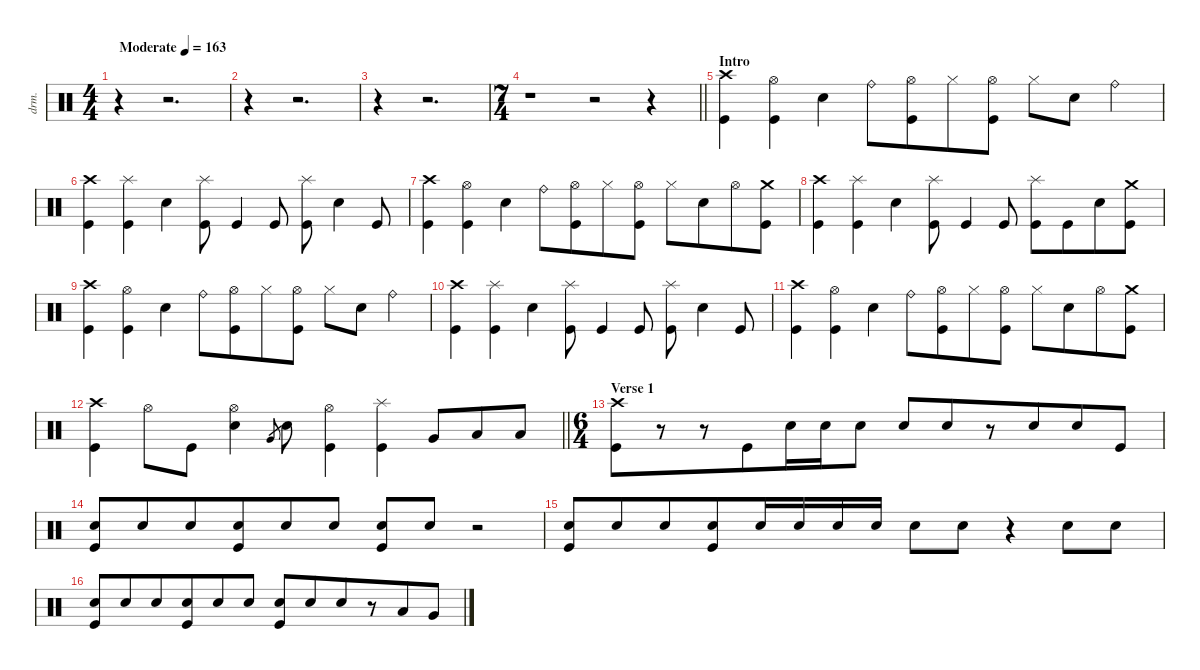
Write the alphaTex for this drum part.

\defaultSystemsLayout 4
\hideDynamics
\bracketExtendMode nobrackets
\otherSystemsTrackNameOrientation horizontal
\track ("Drums" "drm.") {instrument percussion}
\staff {score}
\articulation defaults
\ts (4 4)
\beaming (8 2 2 2 2)
\tempo (163 "Moderate")
\clef neutral
\ks c
r.4{dy f} r.2{d} |
r.4 r.2{d} |
r.4 r.2{d} |
\ts (7 4)
\beaming (8 6 4 4)
\barLineRight lightlight
r.1 r.2 r.4 |
\section ("" "Intro")
("Crash high (hit)" "Kick (hit)").4 ("Hi-Hat (open)" "Kick (hit)").4 "Snare (hit) 2".4 "Ride (bell)".8 ("Hi-Hat (open)" "Kick (hit)").8 "Hi-Hat (closed)".8 ("Hi-Hat (open)" "Kick (hit)").8 "Hi-Hat (closed)".8 "Snare (hit) 2".8 "Ride (bell)".4 |
("Crash high (hit)" "Kick (hit)").4 ("Splash (hit)" "Kick (hit)").4 "Snare (hit) 2".4 ("Splash (hit)" "Kick (hit)").8 "Kick (hit)".4 "Kick (hit)".8 ("Splash (hit)" "Kick (hit)").8 "Snare (hit) 2".4 "Kick (hit)".8 |
("Crash high (hit)" "Kick (hit)").4 ("Hi-Hat (open)" "Kick (hit)").4 "Snare (hit) 2".4 "Ride (bell)".8 ("Hi-Hat (open)" "Kick (hit)").8 "Hi-Hat (closed)".8 ("Hi-Hat (open)" "Kick (hit)").8 "Hi-Hat (closed)".8 "Snare (hit) 2".8 "Hi-Hat (open)".8 ("Crash medium (hit)" "Kick (hit)").8 |
("Crash high (hit)" "Kick (hit)").4 ("Splash (hit)" "Kick (hit)").4 "Snare (hit) 2".4 ("Splash (hit)" "Kick (hit)").8 "Kick (hit)".4 "Kick (hit)".8 ("Splash (hit)" "Kick (hit)").8 "Kick (hit)".8 "Snare (hit) 2".8 ("Crash medium (hit)" "Kick (hit)").8 |
("Crash high (hit)" "Kick (hit)").4 ("Hi-Hat (open)" "Kick (hit)").4 "Snare (hit) 2".4 "Ride (bell)".8 ("Hi-Hat (open)" "Kick (hit)").8 "Hi-Hat (closed)".8 ("Hi-Hat (open)" "Kick (hit)").8 "Hi-Hat (closed)".8 "Snare (hit) 2".8 "Ride (bell)".4 |
("Crash high (hit)" "Kick (hit)").4 ("Splash (hit)" "Kick (hit)").4 "Snare (hit) 2".4 ("Splash (hit)" "Kick (hit)").8 "Kick (hit)".4 "Kick (hit)".8 ("Splash (hit)" "Kick (hit)").8 "Snare (hit) 2".4 "Kick (hit)".8 |
("Crash high (hit)" "Kick (hit)").4 ("Hi-Hat (open)" "Kick (hit)").4 "Snare (hit) 2".4 "Ride (bell)".8 ("Hi-Hat (open)" "Kick (hit)").8 "Hi-Hat (closed)".8 ("Hi-Hat (open)" "Kick (hit)").8 "Hi-Hat (closed)".8 "Snare (hit) 2".8 "Hi-Hat (open)".8 ("Crash medium (hit)" "Kick (hit)").8 |
\barLineRight lightlight
("Crash high (hit)" "Kick (hit)").4 "Hi-Hat (open)".8 "Kick (hit)".8 ("Hi-Hat (open)" "Snare (hit) 2").4 "Very Low Tom (hit)".8{gr dy mf} "Snare (hit) 2".8{dy f} ("Hi-Hat (open)" "Kick (hit)").4 ("Splash (hit)" "Kick (hit)").4 "Very Low Tom (hit)".8 "Low Floor Tom (hit)".8 "Low Floor Tom (hit)".8 |
\ts (6 4)
\beaming (8 6 6)
\section ("" "Verse 1")
("Crash high (hit)" "Kick (hit)").8 r.8 r.8 "Kick (hit)".8 "Snare (hit) 2".16{dy p} "Snare (hit) 2".16 "Snare (hit) 2".8 "Snare (hit) 2".8 "Snare (hit) 2".8{dy f} r.8 "Snare (hit) 2".8{dy p} "Snare (hit) 2".8 "Kick (hit)".8{dy f} |
("Snare (hit) 2" "Kick (hit)").8{dy p} "Snare (hit) 2".8 "Snare (hit) 2".8 ("Snare (hit) 2" "Kick (hit)").8 "Snare (hit) 2".8 "Snare (hit) 2".8 ("Snare (hit) 2" "Kick (hit)").8 "Snare (hit) 2".8{dy f} r.2 |
("Snare (hit) 2" "Kick (hit)").8{dy p} "Snare (hit) 2".8 "Snare (hit) 2".8 ("Snare (hit) 2" "Kick (hit)").8 "Snare (hit) 2".16 "Snare (hit) 2".16 "Snare (hit) 2".16 "Snare (hit) 2".16 "Snare (hit) 2".8 "Snare (hit) 2".8{dy f} r.4 "Snare (hit) 2".8{dy p} "Snare (hit) 2".8 |
("Snare (hit) 2" "Kick (hit)").8 "Snare (hit) 2".8 "Snare (hit) 2".8 ("Snare (hit) 2" "Kick (hit)").8 "Snare (hit) 2".8 "Snare (hit) 2".8 ("Snare (hit) 2" "Kick (hit)").8 "Snare (hit) 2".8{dy f} "Snare (hit) 2".8 r.8 "Low Tom (hit)".8 "Very Low Tom (hit)".8
